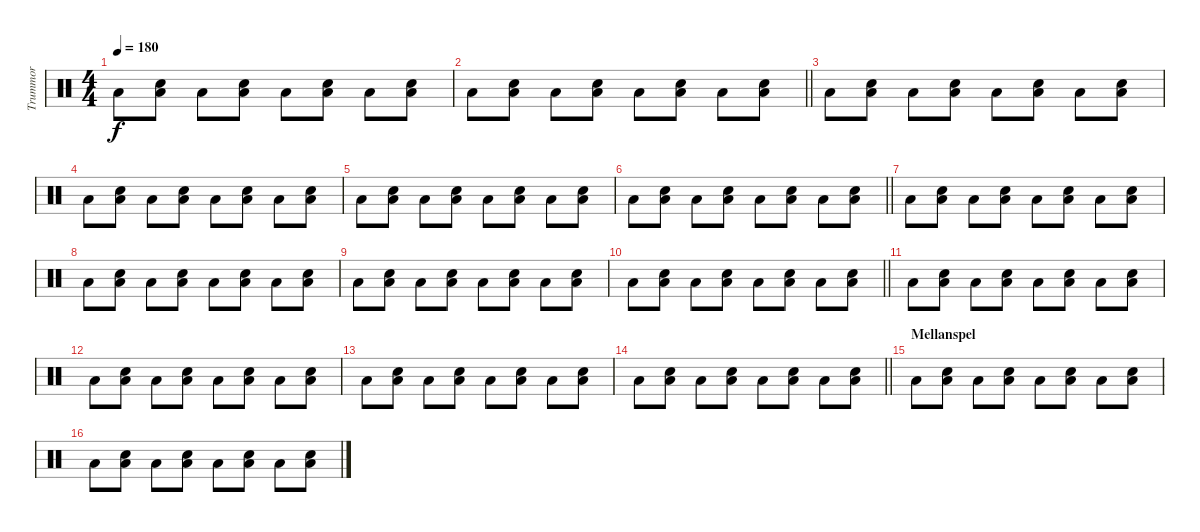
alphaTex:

\track ("Trummor" "Trummor") {instrument percussion}
\staff {score}
\articulation defaults
\ts (4 4)
\tempo 180
\clef neutral
\ks c "Low Tom (hit)".8{dy f}
("Low Tom (hit)" "Snare (hit) 2").8 "Low Tom (hit)".8 ("Low Tom (hit)" "Snare (hit) 2").8 "Low Tom (hit)".8 ("Low Tom (hit)" "Snare (hit) 2").8 "Low Tom (hit)".8 ("Low Tom (hit)" "Snare (hit) 2").8 |
\barLineRight lightlight "Low Tom (hit)".8
("Low Tom (hit)" "Snare (hit) 2").8 "Low Tom (hit)".8 ("Low Tom (hit)" "Snare (hit) 2").8 "Low Tom (hit)".8 ("Low Tom (hit)" "Snare (hit) 2").8 "Low Tom (hit)".8 ("Low Tom (hit)" "Snare (hit) 2").8 |
"Low Tom (hit)".8 ("Low Tom (hit)" "Snare (hit) 2").8 "Low Tom (hit)".8 ("Low Tom (hit)" "Snare (hit) 2").8 "Low Tom (hit)".8 ("Low Tom (hit)" "Snare (hit) 2").8 "Low Tom (hit)".8 ("Low Tom (hit)" "Snare (hit) 2").8 |
"Low Tom (hit)".8 ("Low Tom (hit)" "Snare (hit) 2").8 "Low Tom (hit)".8 ("Low Tom (hit)" "Snare (hit) 2").8 "Low Tom (hit)".8 ("Low Tom (hit)" "Snare (hit) 2").8 "Low Tom (hit)".8 ("Low Tom (hit)" "Snare (hit) 2").8 |
"Low Tom (hit)".8 ("Low Tom (hit)" "Snare (hit) 2").8 "Low Tom (hit)".8 ("Low Tom (hit)" "Snare (hit) 2").8 "Low Tom (hit)".8 ("Low Tom (hit)" "Snare (hit) 2").8 "Low Tom (hit)".8 ("Low Tom (hit)" "Snare (hit) 2").8 |
\barLineRight lightlight "Low Tom (hit)".8
("Low Tom (hit)" "Snare (hit) 2").8 "Low Tom (hit)".8 ("Low Tom (hit)" "Snare (hit) 2").8 "Low Tom (hit)".8 ("Low Tom (hit)" "Snare (hit) 2").8 "Low Tom (hit)".8 ("Low Tom (hit)" "Snare (hit) 2").8 |
"Low Tom (hit)".8 ("Low Tom (hit)" "Snare (hit) 2").8 "Low Tom (hit)".8 ("Low Tom (hit)" "Snare (hit) 2").8 "Low Tom (hit)".8 ("Low Tom (hit)" "Snare (hit) 2").8 "Low Tom (hit)".8 ("Low Tom (hit)" "Snare (hit) 2").8 |
"Low Tom (hit)".8 ("Low Tom (hit)" "Snare (hit) 2").8 "Low Tom (hit)".8 ("Low Tom (hit)" "Snare (hit) 2").8 "Low Tom (hit)".8 ("Low Tom (hit)" "Snare (hit) 2").8 "Low Tom (hit)".8 ("Low Tom (hit)" "Snare (hit) 2").8 |
"Low Tom (hit)".8 ("Low Tom (hit)" "Snare (hit) 2").8 "Low Tom (hit)".8 ("Low Tom (hit)" "Snare (hit) 2").8 "Low Tom (hit)".8 ("Low Tom (hit)" "Snare (hit) 2").8 "Low Tom (hit)".8 ("Low Tom (hit)" "Snare (hit) 2").8 |
\barLineRight lightlight "Low Tom (hit)".8
("Low Tom (hit)" "Snare (hit) 2").8 "Low Tom (hit)".8 ("Low Tom (hit)" "Snare (hit) 2").8 "Low Tom (hit)".8 ("Low Tom (hit)" "Snare (hit) 2").8 "Low Tom (hit)".8 ("Low Tom (hit)" "Snare (hit) 2").8 |
"Low Tom (hit)".8 ("Low Tom (hit)" "Snare (hit) 2").8 "Low Tom (hit)".8 ("Low Tom (hit)" "Snare (hit) 2").8 "Low Tom (hit)".8 ("Low Tom (hit)" "Snare (hit) 2").8 "Low Tom (hit)".8 ("Low Tom (hit)" "Snare (hit) 2").8 |
"Low Tom (hit)".8 ("Low Tom (hit)" "Snare (hit) 2").8 "Low Tom (hit)".8 ("Low Tom (hit)" "Snare (hit) 2").8 "Low Tom (hit)".8 ("Low Tom (hit)" "Snare (hit) 2").8 "Low Tom (hit)".8 ("Low Tom (hit)" "Snare (hit) 2").8 |
"Low Tom (hit)".8 ("Low Tom (hit)" "Snare (hit) 2").8 "Low Tom (hit)".8 ("Low Tom (hit)" "Snare (hit) 2").8 "Low Tom (hit)".8 ("Low Tom (hit)" "Snare (hit) 2").8 "Low Tom (hit)".8 ("Low Tom (hit)" "Snare (hit) 2").8 |
\barLineRight lightlight "Low Tom (hit)".8
("Low Tom (hit)" "Snare (hit) 2").8 "Low Tom (hit)".8 ("Low Tom (hit)" "Snare (hit) 2").8 "Low Tom (hit)".8 ("Low Tom (hit)" "Snare (hit) 2").8 "Low Tom (hit)".8 ("Low Tom (hit)" "Snare (hit) 2").8 |
\section ("" "Mellanspel")
"Low Tom (hit)".8 ("Low Tom (hit)" "Snare (hit) 2").8 "Low Tom (hit)".8 ("Low Tom (hit)" "Snare (hit) 2").8 "Low Tom (hit)".8 ("Low Tom (hit)" "Snare (hit) 2").8 "Low Tom (hit)".8 ("Low Tom (hit)" "Snare (hit) 2").8 |
"Low Tom (hit)".8 ("Low Tom (hit)" "Snare (hit) 2").8 "Low Tom (hit)".8 ("Low Tom (hit)" "Snare (hit) 2").8 "Low Tom (hit)".8 ("Low Tom (hit)" "Snare (hit) 2").8 "Low Tom (hit)".8 ("Low Tom (hit)" "Snare (hit) 2").8
